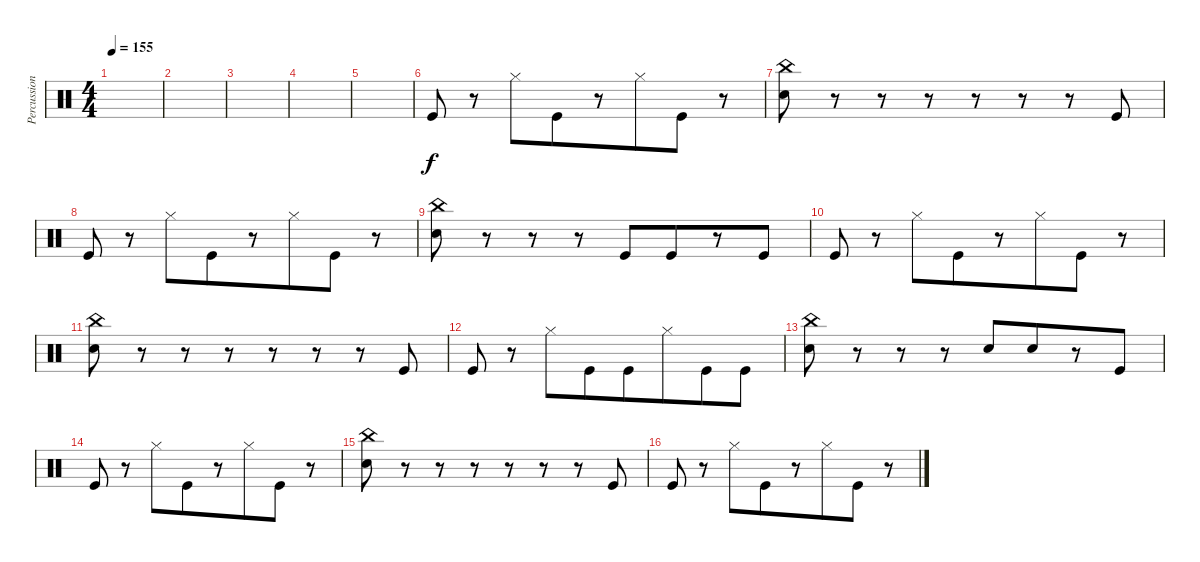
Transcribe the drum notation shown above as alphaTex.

\track ("Percussion" "Percussion") {instrument percussion}
\staff {score}
\articulation defaults
\ts (4 4)
\tempo 155
\clef neutral
\ks c
|
|
|
|
|
"Kick (hit)".8{volume 16} r.8 "Hi-Hat (closed)".8 "Kick (hit)".8{beam merge} r.8 "Hi-Hat (closed)".8{beam merge} "Kick (hit)".8 r.8 |
("China (hit)" "Electric Snare (hit)").8 r.8 r.8 r.8 r.8 r.8{beam merge} r.8 "Kick (hit)".8 |
"Kick (hit)".8 r.8 "Hi-Hat (closed)".8 "Kick (hit)".8{beam merge} r.8 "Hi-Hat (closed)".8{beam merge} "Kick (hit)".8 r.8 |
("China (hit)" "Electric Snare (hit)").8 r.8 r.8 r.8 "Kick (hit)".8 "Kick (hit)".8{beam merge} r.8 "Kick (hit)".8 |
"Kick (hit)".8 r.8 "Hi-Hat (closed)".8 "Kick (hit)".8{beam merge} r.8 "Hi-Hat (closed)".8{beam merge} "Kick (hit)".8 r.8 |
("China (hit)" "Electric Snare (hit)").8 r.8 r.8 r.8 r.8 r.8{beam merge} r.8 "Kick (hit)".8 |
"Kick (hit)".8 r.8 "Hi-Hat (closed)".8 "Kick (hit)".8{beam merge} "Kick (hit)".8 "Hi-Hat (closed)".8{beam merge} "Kick (hit)".8 "Kick (hit)".8 |
("China (hit)" "Electric Snare (hit)").8 r.8 r.8 r.8 "Electric Snare (hit)".8 "Electric Snare (hit)".8{beam merge} r.8 "Kick (hit)".8 |
"Kick (hit)".8 r.8 "Hi-Hat (closed)".8 "Kick (hit)".8{beam merge} r.8 "Hi-Hat (closed)".8{beam merge} "Kick (hit)".8 r.8 |
("China (hit)" "Electric Snare (hit)").8 r.8 r.8 r.8 r.8 r.8{beam merge} r.8 "Kick (hit)".8 |
"Kick (hit)".8 r.8 "Hi-Hat (closed)".8 "Kick (hit)".8{beam merge} r.8 "Hi-Hat (closed)".8{beam merge} "Kick (hit)".8 r.8
